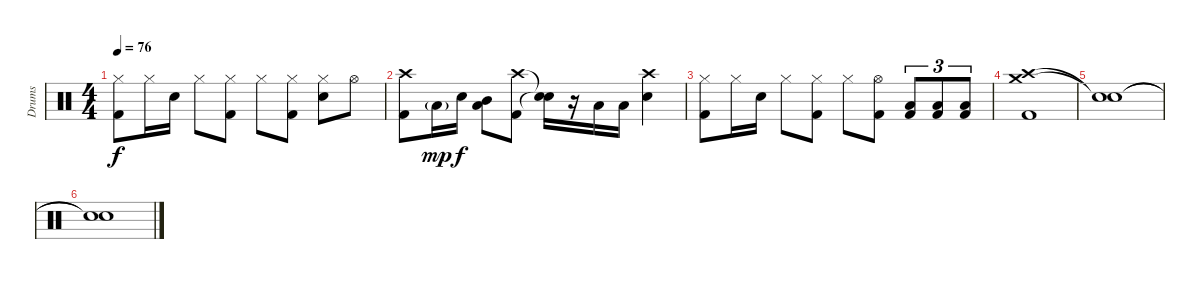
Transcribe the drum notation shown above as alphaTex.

\track ("Drums" "Drums") {instrument percussion}
\staff {score}
\articulation defaults
\ts (4 4)
\tempo 76
\clef neutral
\ks c
("Hi-Hat (closed)" "Kick (hit) 2").8{dy f} "Hi-Hat (closed)".16 "Electric Snare (hit)".16 "Hi-Hat (closed)".8 ("Hi-Hat (closed)" "Kick (hit) 2").8 "Hi-Hat (closed)".8 ("Hi-Hat (closed)" "Kick (hit) 2").8 ("Hi-Hat (closed)" "Electric Snare (hit)").8 "Hi-Hat (open)".8 |
("Crash high (hit)" "Kick (hit) 2").8 "Low Tom (hit)"{g}.16{dy mp} "Electric Snare (hit)".16{dy f} ("Low Tom (hit)" "Mid Tom (hit)").8 ("Crash high (hit)" "Kick (hit) 2").8 ("Snare (hit)"{t} "Snare (hit)"{t}).16 r.16 "Low Tom (hit)".16 "Low Tom (hit)".16 ("Crash high (hit)" "Electric Snare (hit)").4 |
("Hi-Hat (closed)" "Kick (hit) 2").8 "Hi-Hat (closed)".16 "Electric Snare (hit)".16 "Hi-Hat (closed)".8 ("Hi-Hat (closed)" "Kick (hit) 2").8 "Hi-Hat (closed)".8 ("Hi-Hat (open)" "Kick (hit) 2").8 ("Low Tom (hit)" "Kick (hit) 2").8{tu (3 2)} ("Low Tom (hit)" "Kick (hit) 2").8{tu (3 2)} ("Low Tom (hit)" "Kick (hit) 2").8{tu (3 2)} |
("Crash medium (hit)" "Crash high (hit)" "Kick (hit) 2").1 |
("Snare (hit)"{t} "Snare (hit)"{t}).1 |
("Snare (hit)"{t} "Snare (hit)"{t}).1{volume 0}
